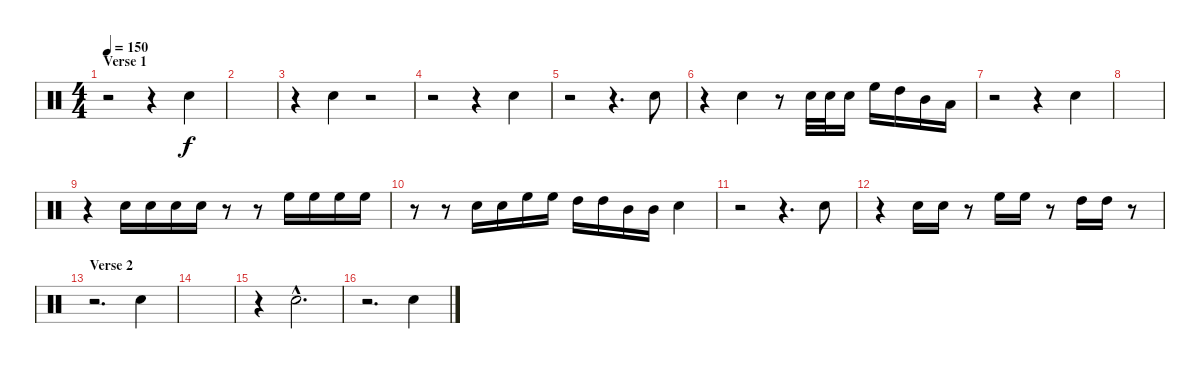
\track "" {instrument percussion}
\staff {score}
\articulation defaults
\ts (4 4)
\section ("" "Verse 1")
\tempo 150
\clef neutral
\ks c
r.2{dy f} r.4 "Electric Snare (hit)".4 |
|
r.4 "Electric Snare (hit)".4 r.2 |
r.2 r.4 "Electric Snare (hit)".4 |
r.2 r.4{d} "Electric Snare (hit)".8 |
r.4 "Electric Snare (hit)".4 r.8 "Electric Snare (hit)".32 "Electric Snare (hit)".32 "Electric Snare (hit)".16 "High Floor Tom (hit)".16 "High Tom (hit)".16 "Mid Tom (hit)".16 "Low Tom (hit)".16 |
r.2 r.4 "Electric Snare (hit)".4 |
|
r.4 "Electric Snare (hit)".16 "Electric Snare (hit)".16 "Electric Snare (hit)".16 "Electric Snare (hit)".16 r.8 r.8 "High Floor Tom (hit)".16 "High Floor Tom (hit)".16 "High Floor Tom (hit)".16 "High Floor Tom (hit)".16 |
r.8 r.8 "Electric Snare (hit)".16 "Electric Snare (hit)".16 "High Floor Tom (hit)".16 "High Floor Tom (hit)".16 "High Tom (hit)".16 "High Tom (hit)".16 "Mid Tom (hit)".16 "Mid Tom (hit)".16 "Electric Snare (hit)".4 |
r.2 r.4{d} "Electric Snare (hit)".8 |
r.4 "Electric Snare (hit)".16 "Electric Snare (hit)".16 r.8 "High Floor Tom (hit)".16 "High Floor Tom (hit)".16 r.8 "High Tom (hit)".16 "High Tom (hit)".16 r.8 |
\section ("" "Verse 2")
r.2{d} "Electric Snare (hit)".4 |
|
r.4 "Electric Snare (hit)"{hac}.2{d} |
r.2{d} "Electric Snare (hit)".4
